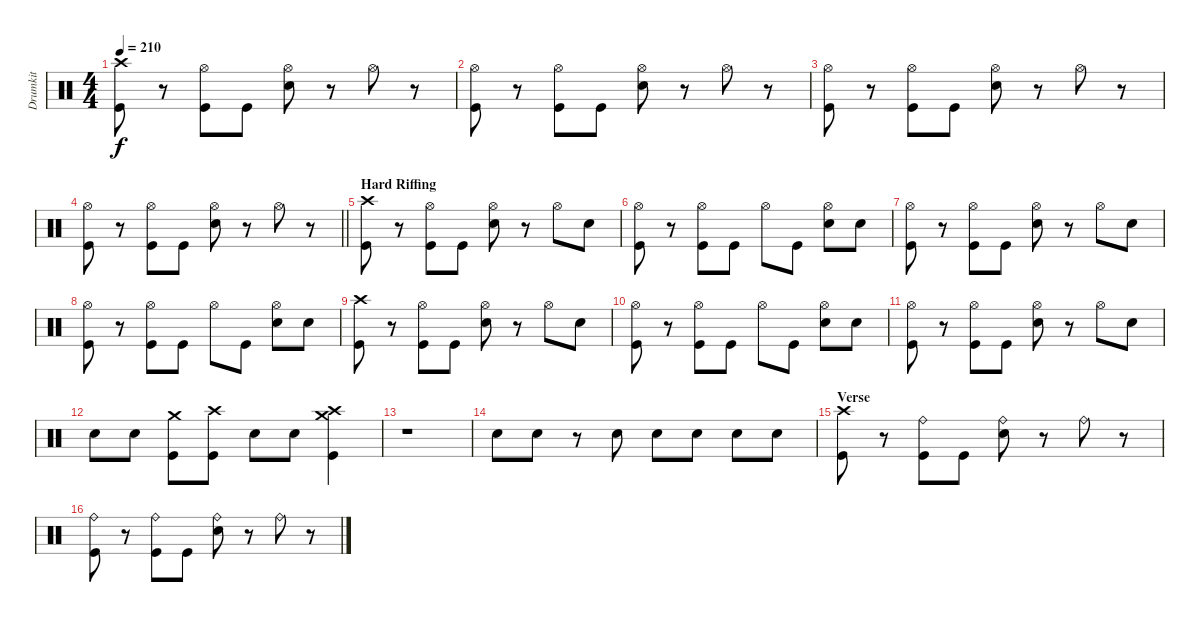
\track ("Drumkit" "Drumkit") {instrument percussion}
\staff {score}
\articulation defaults
\ts (4 4)
\tempo 210
\clef neutral
\ks c
("Crash high (hit)" "Kick (hit)").8{dy f} r.8 ("Hi-Hat (open)" "Kick (hit)").8 "Kick (hit)".8 ("Hi-Hat (open)" "Snare (hit) 2").8 r.8 "Hi-Hat (open)".8 r.8 |
("Hi-Hat (open)" "Kick (hit)").8 r.8 ("Hi-Hat (open)" "Kick (hit)").8 "Kick (hit)".8 ("Hi-Hat (open)" "Snare (hit) 2").8 r.8 "Hi-Hat (open)".8 r.8 |
("Hi-Hat (open)" "Kick (hit)").8 r.8 ("Hi-Hat (open)" "Kick (hit)").8 "Kick (hit)".8 ("Hi-Hat (open)" "Snare (hit) 2").8 r.8 "Hi-Hat (open)".8 r.8 |
\barLineRight lightlight
("Hi-Hat (open)" "Kick (hit)").8 r.8 ("Hi-Hat (open)" "Kick (hit)").8 "Kick (hit)".8 ("Hi-Hat (open)" "Snare (hit) 2").8 r.8 "Hi-Hat (open)".8 r.8 |
\section ("" "Hard Riffing")
("Crash high (hit)" "Kick (hit)").8 r.8 ("Hi-Hat (open)" "Kick (hit)").8 "Kick (hit)".8 ("Hi-Hat (open)" "Snare (hit) 2").8 r.8 "Hi-Hat (open)".8 "Snare (hit) 2".8 |
("Hi-Hat (open)" "Kick (hit)").8 r.8 ("Hi-Hat (open)" "Kick (hit)").8 "Kick (hit)".8 "Hi-Hat (open)".8 "Kick (hit)".8 ("Hi-Hat (open)" "Snare (hit) 2").8 "Snare (hit) 2".8 |
("Hi-Hat (open)" "Kick (hit)").8 r.8 ("Hi-Hat (open)" "Kick (hit)").8 "Kick (hit)".8 ("Hi-Hat (open)" "Snare (hit) 2").8 r.8 "Hi-Hat (open)".8 "Snare (hit) 2".8 |
("Hi-Hat (open)" "Kick (hit)").8 r.8 ("Hi-Hat (open)" "Kick (hit)").8 "Kick (hit)".8 "Hi-Hat (open)".8 "Kick (hit)".8 ("Hi-Hat (open)" "Snare (hit) 2").8 "Snare (hit) 2".8 |
("Crash high (hit)" "Kick (hit)").8 r.8 ("Hi-Hat (open)" "Kick (hit)").8 "Kick (hit)".8 ("Hi-Hat (open)" "Snare (hit) 2").8 r.8 "Hi-Hat (open)".8 "Snare (hit) 2".8 |
("Hi-Hat (open)" "Kick (hit)").8 r.8 ("Hi-Hat (open)" "Kick (hit)").8 "Kick (hit)".8 "Hi-Hat (open)".8 "Kick (hit)".8 ("Hi-Hat (open)" "Snare (hit) 2").8 "Snare (hit) 2".8 |
("Hi-Hat (open)" "Kick (hit)").8 r.8 ("Hi-Hat (open)" "Kick (hit)").8 "Kick (hit)".8 ("Hi-Hat (open)" "Snare (hit) 2").8 r.8 "Hi-Hat (open)".8 "Snare (hit) 2".8 |
"Snare (hit) 2".8 "Snare (hit) 2".8 ("Crash medium (hit)" "Kick (hit)").8 ("Crash high (hit)" "Kick (hit)").8 "Snare (hit) 2".8 "Snare (hit) 2".8 ("Crash high (hit)" "Crash medium (hit)" "Kick (hit)").4 |
r.1 |
"Snare (hit) 2".8 "Snare (hit) 2".8 r.8 "Snare (hit) 2".8 "Snare (hit) 2".8 "Snare (hit) 2".8 "Snare (hit) 2".8 "Snare (hit) 2".8 |
\section ("" "Verse")
("Crash high (hit)" "Kick (hit)").8 r.8 ("Ride (bell)" "Kick (hit)").8 "Kick (hit)".8 ("Ride (bell)" "Snare (hit) 2").8 r.8 "Ride (bell)".8 r.8 |
("Ride (bell)" "Kick (hit)").8 r.8 ("Ride (bell)" "Kick (hit)").8 "Kick (hit)".8 ("Ride (bell)" "Snare (hit) 2").8 r.8 "Ride (bell)".8 r.8
